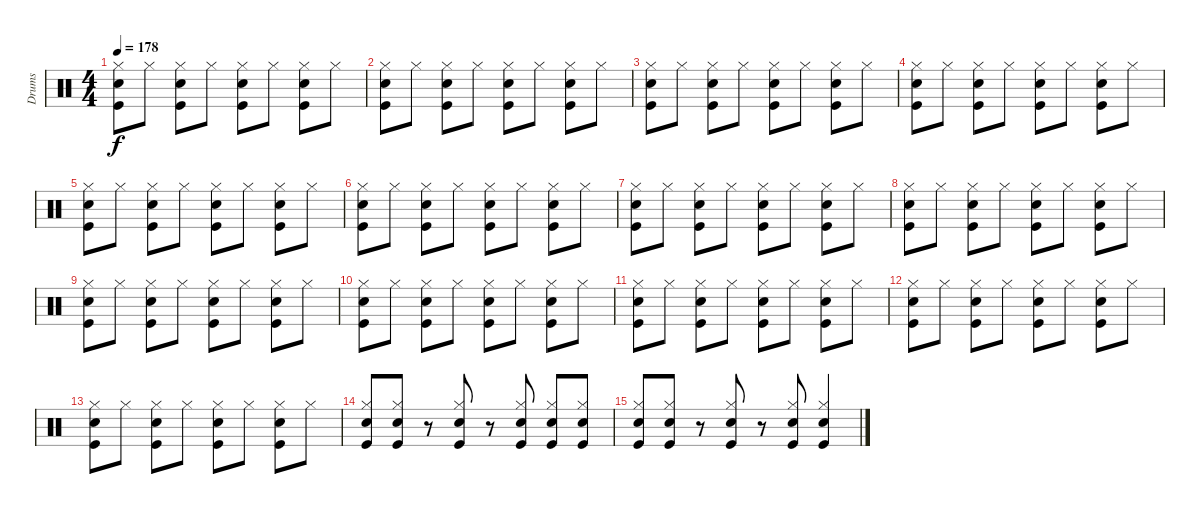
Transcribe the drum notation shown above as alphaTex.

\track ("Drums" "Drums") {instrument percussion}
\staff {score}
\articulation defaults
\ts (4 4)
\tempo 178
\clef neutral
\ks c
("Electric Snare (hit)" "Hi-Hat (closed)" "Kick (hit)").8{dy f} "Hi-Hat (closed)".8 ("Electric Snare (hit)" "Hi-Hat (closed)" "Kick (hit)").8 "Hi-Hat (closed)".8 ("Electric Snare (hit)" "Hi-Hat (closed)" "Kick (hit)").8 "Hi-Hat (closed)".8 ("Electric Snare (hit)" "Hi-Hat (closed)" "Kick (hit)").8 "Hi-Hat (closed)".8 |
("Electric Snare (hit)" "Hi-Hat (closed)" "Kick (hit)").8 "Hi-Hat (closed)".8 ("Electric Snare (hit)" "Hi-Hat (closed)" "Kick (hit)").8 "Hi-Hat (closed)".8 ("Electric Snare (hit)" "Hi-Hat (closed)" "Kick (hit)").8 "Hi-Hat (closed)".8 ("Electric Snare (hit)" "Hi-Hat (closed)" "Kick (hit)").8 "Hi-Hat (closed)".8 |
("Electric Snare (hit)" "Hi-Hat (closed)" "Kick (hit)").8 "Hi-Hat (closed)".8 ("Electric Snare (hit)" "Hi-Hat (closed)" "Kick (hit)").8 "Hi-Hat (closed)".8 ("Electric Snare (hit)" "Hi-Hat (closed)" "Kick (hit)").8 "Hi-Hat (closed)".8 ("Electric Snare (hit)" "Hi-Hat (closed)" "Kick (hit)").8 "Hi-Hat (closed)".8 |
("Electric Snare (hit)" "Hi-Hat (closed)" "Kick (hit)").8 "Hi-Hat (closed)".8 ("Electric Snare (hit)" "Hi-Hat (closed)" "Kick (hit)").8 "Hi-Hat (closed)".8 ("Electric Snare (hit)" "Hi-Hat (closed)" "Kick (hit)").8 "Hi-Hat (closed)".8 ("Electric Snare (hit)" "Hi-Hat (closed)" "Kick (hit)").8 "Hi-Hat (closed)".8 |
("Electric Snare (hit)" "Hi-Hat (closed)" "Kick (hit)").8 "Hi-Hat (closed)".8 ("Electric Snare (hit)" "Hi-Hat (closed)" "Kick (hit)").8 "Hi-Hat (closed)".8 ("Electric Snare (hit)" "Hi-Hat (closed)" "Kick (hit)").8 "Hi-Hat (closed)".8 ("Electric Snare (hit)" "Hi-Hat (closed)" "Kick (hit)").8 "Hi-Hat (closed)".8 |
("Electric Snare (hit)" "Hi-Hat (closed)" "Kick (hit)").8 "Hi-Hat (closed)".8 ("Electric Snare (hit)" "Hi-Hat (closed)" "Kick (hit)").8 "Hi-Hat (closed)".8 ("Electric Snare (hit)" "Hi-Hat (closed)" "Kick (hit)").8 "Hi-Hat (closed)".8 ("Electric Snare (hit)" "Hi-Hat (closed)" "Kick (hit)").8 "Hi-Hat (closed)".8 |
("Electric Snare (hit)" "Hi-Hat (closed)" "Kick (hit)").8 "Hi-Hat (closed)".8 ("Electric Snare (hit)" "Hi-Hat (closed)" "Kick (hit)").8 "Hi-Hat (closed)".8 ("Electric Snare (hit)" "Hi-Hat (closed)" "Kick (hit)").8 "Hi-Hat (closed)".8 ("Electric Snare (hit)" "Hi-Hat (closed)" "Kick (hit)").8 "Hi-Hat (closed)".8 |
("Electric Snare (hit)" "Hi-Hat (closed)" "Kick (hit)").8 "Hi-Hat (closed)".8 ("Electric Snare (hit)" "Hi-Hat (closed)" "Kick (hit)").8 "Hi-Hat (closed)".8 ("Electric Snare (hit)" "Hi-Hat (closed)" "Kick (hit)").8 "Hi-Hat (closed)".8 ("Electric Snare (hit)" "Hi-Hat (closed)" "Kick (hit)").8 "Hi-Hat (closed)".8 |
("Electric Snare (hit)" "Hi-Hat (closed)" "Kick (hit)").8 "Hi-Hat (closed)".8 ("Electric Snare (hit)" "Hi-Hat (closed)" "Kick (hit)").8 "Hi-Hat (closed)".8 ("Electric Snare (hit)" "Hi-Hat (closed)" "Kick (hit)").8 "Hi-Hat (closed)".8 ("Electric Snare (hit)" "Hi-Hat (closed)" "Kick (hit)").8 "Hi-Hat (closed)".8 |
("Electric Snare (hit)" "Hi-Hat (closed)" "Kick (hit)").8 "Hi-Hat (closed)".8 ("Electric Snare (hit)" "Hi-Hat (closed)" "Kick (hit)").8 "Hi-Hat (closed)".8 ("Electric Snare (hit)" "Hi-Hat (closed)" "Kick (hit)").8 "Hi-Hat (closed)".8 ("Electric Snare (hit)" "Hi-Hat (closed)" "Kick (hit)").8 "Hi-Hat (closed)".8 |
("Electric Snare (hit)" "Hi-Hat (closed)" "Kick (hit)").8 "Hi-Hat (closed)".8 ("Electric Snare (hit)" "Hi-Hat (closed)" "Kick (hit)").8 "Hi-Hat (closed)".8 ("Electric Snare (hit)" "Hi-Hat (closed)" "Kick (hit)").8 "Hi-Hat (closed)".8 ("Electric Snare (hit)" "Hi-Hat (closed)" "Kick (hit)").8 "Hi-Hat (closed)".8 |
("Electric Snare (hit)" "Hi-Hat (closed)" "Kick (hit)").8 "Hi-Hat (closed)".8 ("Electric Snare (hit)" "Hi-Hat (closed)" "Kick (hit)").8 "Hi-Hat (closed)".8 ("Electric Snare (hit)" "Hi-Hat (closed)" "Kick (hit)").8 "Hi-Hat (closed)".8 ("Electric Snare (hit)" "Hi-Hat (closed)" "Kick (hit)").8 "Hi-Hat (closed)".8 |
("Electric Snare (hit)" "Hi-Hat (closed)" "Kick (hit)").8 "Hi-Hat (closed)".8 ("Electric Snare (hit)" "Hi-Hat (closed)" "Kick (hit)").8 "Hi-Hat (closed)".8 ("Electric Snare (hit)" "Hi-Hat (closed)" "Kick (hit)").8 "Hi-Hat (closed)".8 ("Electric Snare (hit)" "Hi-Hat (closed)" "Kick (hit)").8 "Hi-Hat (closed)".8 |
("Electric Snare (hit)" "Hi-Hat (closed)" "Kick (hit)").8 ("Electric Snare (hit)" "Hi-Hat (closed)" "Kick (hit)").8 r.8 ("Electric Snare (hit)" "Hi-Hat (closed)" "Kick (hit)").8 r.8 ("Electric Snare (hit)" "Hi-Hat (closed)" "Kick (hit)").8 ("Electric Snare (hit)" "Hi-Hat (closed)" "Kick (hit)").8 ("Electric Snare (hit)" "Hi-Hat (closed)" "Kick (hit)").8 |
("Electric Snare (hit)" "Hi-Hat (closed)" "Kick (hit)").8 ("Electric Snare (hit)" "Hi-Hat (closed)" "Kick (hit)").8 r.8 ("Electric Snare (hit)" "Hi-Hat (closed)" "Kick (hit)").8 r.8 ("Electric Snare (hit)" "Hi-Hat (closed)" "Kick (hit)").8 ("Electric Snare (hit)" "Hi-Hat (closed)" "Kick (hit)").4
